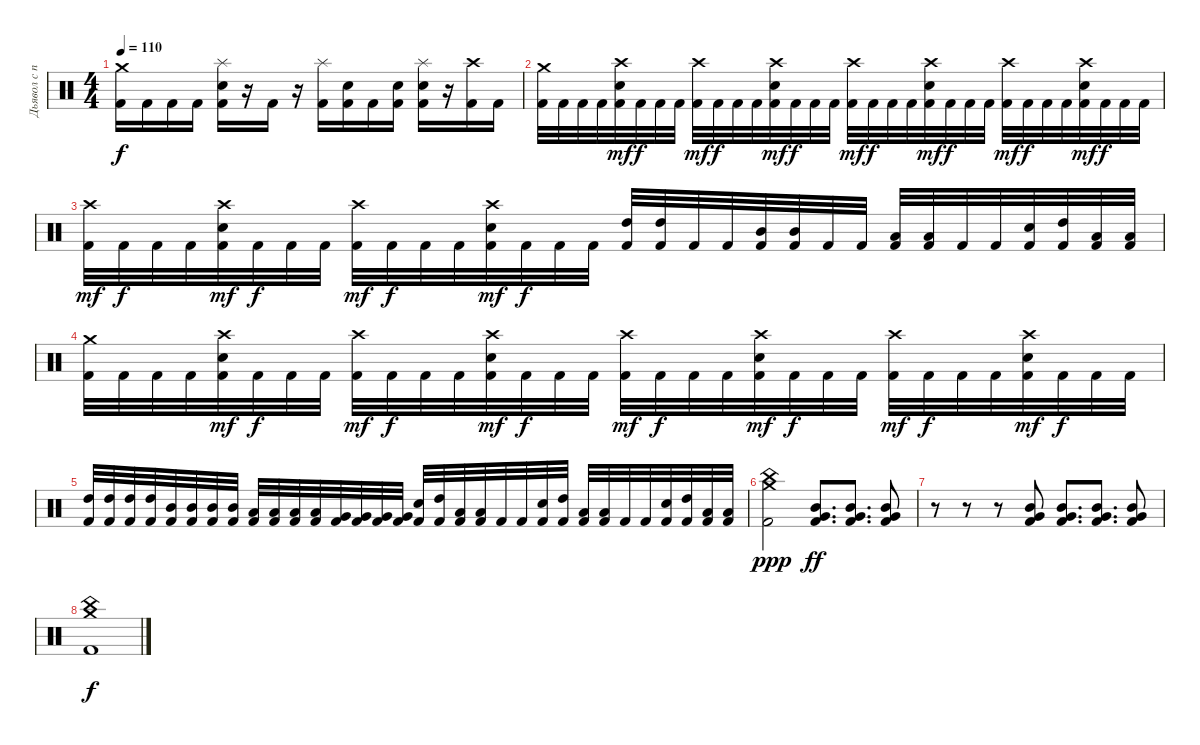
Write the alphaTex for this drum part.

\track ("Дьявол с палками" "Дьявол с п") {instrument percussion}
\staff {score}
\articulation defaults
\ts (4 4)
\tempo 110
\clef neutral
\ks c
("Kick (hit) 2" "Crash medium (hit)").16{dy f} "Kick (hit) 2".16 "Kick (hit) 2".16 "Kick (hit) 2".16 ("Kick (hit) 2" "Snare (hit) 2" "Splash (hit)").16 r.16 "Kick (hit) 2".16 r.16 ("Kick (hit) 2" "Splash (hit)").16 ("Kick (hit) 2" "Snare (hit) 2").16 "Kick (hit) 2".16 ("Kick (hit) 2" "Snare (hit) 2").16 ("Kick (hit) 2" "Snare (hit) 2" "Splash (hit)").16 r.16 ("Kick (hit) 2" "Crash high (hit)").16 "Kick (hit) 2".16 |
("Kick (hit) 2" "Crash medium (hit)").32 "Kick (hit) 2".32 "Kick (hit) 2".32 "Kick (hit) 2".32 ("Kick (hit) 2" "Snare (hit) 2" "Crash high (hit)").32{dy mf} "Kick (hit) 2".32{dy f} "Kick (hit) 2".32 "Kick (hit) 2".32 ("Kick (hit) 2" "Crash high (hit)").32{dy mf} "Kick (hit) 2".32{dy f} "Kick (hit) 2".32 "Kick (hit) 2".32 ("Kick (hit) 2" "Snare (hit) 2" "Crash high (hit)").32{dy mf} "Kick (hit) 2".32{dy f} "Kick (hit) 2".32 "Kick (hit) 2".32 ("Kick (hit) 2" "Crash high (hit)").32{dy mf} "Kick (hit) 2".32{dy f} "Kick (hit) 2".32 "Kick (hit) 2".32 ("Kick (hit) 2" "Snare (hit) 2" "Crash high (hit)").32{dy mf} "Kick (hit) 2".32{dy f} "Kick (hit) 2".32 "Kick (hit) 2".32 ("Kick (hit) 2" "Crash high (hit)").32{dy mf} "Kick (hit) 2".32{dy f} "Kick (hit) 2".32 "Kick (hit) 2".32 ("Kick (hit) 2" "Snare (hit) 2" "Crash high (hit)").32{dy mf} "Kick (hit) 2".32{dy f} "Kick (hit) 2".32 "Kick (hit) 2".32 |
("Kick (hit) 2" "Crash high (hit)").32{dy mf} "Kick (hit) 2".32{dy f} "Kick (hit) 2".32 "Kick (hit) 2".32 ("Kick (hit) 2" "Snare (hit) 2" "Crash high (hit)").32{dy mf} "Kick (hit) 2".32{dy f} "Kick (hit) 2".32 "Kick (hit) 2".32 ("Kick (hit) 2" "Crash high (hit)").32{dy mf} "Kick (hit) 2".32{dy f} "Kick (hit) 2".32 "Kick (hit) 2".32 ("Kick (hit) 2" "Snare (hit) 2" "Crash high (hit)").32{dy mf} "Kick (hit) 2".32{dy f} "Kick (hit) 2".32 "Kick (hit) 2".32 ("Kick (hit) 2" "High Tom (hit)").32 ("Kick (hit) 2" "High Tom (hit)").32 "Kick (hit) 2".32 "Kick (hit) 2".32 ("Kick (hit) 2" "Mid Tom (hit)").32 ("Kick (hit) 2" "Mid Tom (hit)").32 "Kick (hit) 2".32 "Kick (hit) 2".32 ("Kick (hit) 2" "Low Tom (hit)").32 ("Kick (hit) 2" "Low Tom (hit)").32 "Kick (hit) 2".32 "Kick (hit) 2".32 ("Kick (hit) 2" "Snare (hit) 2").32 ("Kick (hit) 2" "High Tom (hit)").32 ("Kick (hit) 2" "Low Tom (hit)").32 ("Kick (hit) 2" "Low Tom (hit)").32 |
("Kick (hit) 2" "Crash medium (hit)").32 "Kick (hit) 2".32 "Kick (hit) 2".32 "Kick (hit) 2".32 ("Kick (hit) 2" "Snare (hit) 2" "Crash high (hit)").32{dy mf} "Kick (hit) 2".32{dy f} "Kick (hit) 2".32 "Kick (hit) 2".32 ("Kick (hit) 2" "Crash high (hit)").32{dy mf} "Kick (hit) 2".32{dy f} "Kick (hit) 2".32 "Kick (hit) 2".32 ("Kick (hit) 2" "Snare (hit) 2" "Crash high (hit)").32{dy mf} "Kick (hit) 2".32{dy f} "Kick (hit) 2".32 "Kick (hit) 2".32 ("Kick (hit) 2" "Crash high (hit)").32{dy mf} "Kick (hit) 2".32{dy f} "Kick (hit) 2".32 "Kick (hit) 2".32 ("Kick (hit) 2" "Snare (hit) 2" "Crash high (hit)").32{dy mf} "Kick (hit) 2".32{dy f} "Kick (hit) 2".32 "Kick (hit) 2".32 ("Kick (hit) 2" "Crash high (hit)").32{dy mf} "Kick (hit) 2".32{dy f} "Kick (hit) 2".32 "Kick (hit) 2".32 ("Kick (hit) 2" "Snare (hit) 2" "Crash high (hit)").32{dy mf} "Kick (hit) 2".32{dy f} "Kick (hit) 2".32 "Kick (hit) 2".32 |
("Kick (hit) 2" "High Tom (hit)").32 ("Kick (hit) 2" "High Tom (hit)").32 ("Kick (hit) 2" "High Tom (hit)").32 ("Kick (hit) 2" "High Tom (hit)").32 ("Kick (hit) 2" "Mid Tom (hit)").32 ("Kick (hit) 2" "Mid Tom (hit)").32 ("Kick (hit) 2" "Mid Tom (hit)").32 ("Kick (hit) 2" "Mid Tom (hit)").32 ("Kick (hit) 2" "Low Tom (hit)").32 ("Kick (hit) 2" "Low Tom (hit)").32 ("Kick (hit) 2" "Low Tom (hit)").32 ("Kick (hit) 2" "Low Tom (hit)").32 ("Kick (hit) 2" "Very Low Tom (hit)").32 ("Kick (hit) 2" "Very Low Tom (hit)").32 ("Kick (hit) 2" "Very Low Tom (hit)").32 ("Kick (hit) 2" "Very Low Tom (hit)").32 ("Kick (hit) 2" "Snare (hit) 2").32 ("Kick (hit) 2" "High Tom (hit)").32 ("Kick (hit) 2" "Low Tom (hit)").32 ("Kick (hit) 2" "Low Tom (hit)").32 "Kick (hit) 2".32 "Kick (hit) 2".32 ("Kick (hit) 2" "Snare (hit) 2").32 ("Kick (hit) 2" "High Tom (hit)").32 ("Kick (hit) 2" "Low Tom (hit)").32 ("Kick (hit) 2" "Low Tom (hit)").32 "Kick (hit) 2".32 "Kick (hit) 2".32 ("Kick (hit) 2" "Snare (hit) 2").32 ("Kick (hit) 2" "High Tom (hit)").32 ("Kick (hit) 2" "Low Tom (hit)").32 ("Kick (hit) 2" "Low Tom (hit)").32 |
("Kick (hit) 2" "Crash medium (hit)" "China (hit)").2{dy ppp} ("Kick (hit) 2" "Mid Tom (hit)" "Very Low Tom (hit)").8{d dy ff} ("Kick (hit) 2" "Mid Tom (hit)" "Very Low Tom (hit)").8{d} ("Kick (hit) 2" "Mid Tom (hit)" "Very Low Tom (hit)").8 |
r.8 r.8 r.8 ("Kick (hit) 2" "Mid Tom (hit)" "Very Low Tom (hit)").8 ("Kick (hit) 2" "Mid Tom (hit)" "Very Low Tom (hit)").8{d} ("Kick (hit) 2" "Mid Tom (hit)" "Very Low Tom (hit)").8{d} ("Kick (hit) 2" "Mid Tom (hit)" "Very Low Tom (hit)").8 |
("Kick (hit) 2" "China (hit)" "Crash medium (hit)").1{dy f}
